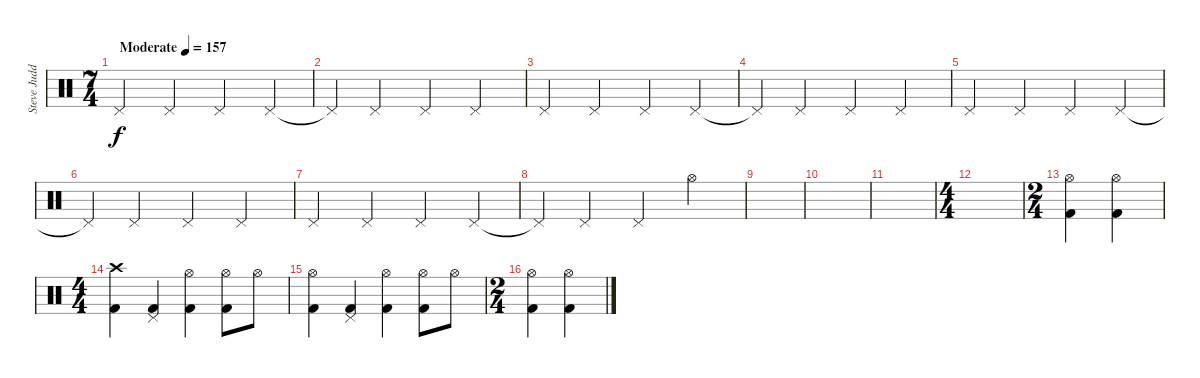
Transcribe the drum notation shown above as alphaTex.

\track ("Steve Judd" "Steve Judd") {instrument percussion}
\staff {score}
\articulation defaults
\ts (7 4)
\tempo (157 "Moderate")
\clef neutral
\ks c "Pedal Hi-Hat (hit)".2{dy f} "Pedal Hi-Hat (hit)".2 "Pedal Hi-Hat (hit)".2 "Pedal Hi-Hat (hit)".4
|
"Pedal Hi-Hat (hit)"{t}.4 "Pedal Hi-Hat (hit)".2 "Pedal Hi-Hat (hit)".2 "Pedal Hi-Hat (hit)".2 |
"Pedal Hi-Hat (hit)".2 "Pedal Hi-Hat (hit)".2 "Pedal Hi-Hat (hit)".2 "Pedal Hi-Hat (hit)".4 |
"Pedal Hi-Hat (hit)"{t}.4 "Pedal Hi-Hat (hit)".2 "Pedal Hi-Hat (hit)".2 "Pedal Hi-Hat (hit)".2 |
"Pedal Hi-Hat (hit)".2 "Pedal Hi-Hat (hit)".2 "Pedal Hi-Hat (hit)".2 "Pedal Hi-Hat (hit)".4 |
"Pedal Hi-Hat (hit)"{t}.4 "Pedal Hi-Hat (hit)".2 "Pedal Hi-Hat (hit)".2 "Pedal Hi-Hat (hit)".2 |
"Pedal Hi-Hat (hit)".2 "Pedal Hi-Hat (hit)".2 "Pedal Hi-Hat (hit)".2 "Pedal Hi-Hat (hit)".4 |
"Pedal Hi-Hat (hit)"{t}.4 "Pedal Hi-Hat (hit)".2 "Pedal Hi-Hat (hit)".2 "Hi-Hat (open)".2 |
|
|
|
\ts (4 4)
|
\ts (2 4)
("Hi-Hat (open)" "Kick (hit) 2").4 ("Hi-Hat (open)" "Kick (hit) 2").4 |
\ts (4 4)
("Crash high (hit)" "Kick (hit) 2").4 ("Pedal Hi-Hat (hit)" "Kick (hit) 2").4 ("Hi-Hat (open)" "Kick (hit) 2").4 ("Hi-Hat (open)" "Kick (hit) 2").8 "Hi-Hat (open)".8 |
("Hi-Hat (open)" "Kick (hit) 2").4 ("Pedal Hi-Hat (hit)" "Kick (hit) 2").4 ("Hi-Hat (open)" "Kick (hit) 2").4 ("Hi-Hat (open)" "Kick (hit) 2").8 "Hi-Hat (open)".8 |
\ts (2 4)
("Hi-Hat (open)" "Kick (hit) 2").4 ("Hi-Hat (open)" "Kick (hit) 2").4
